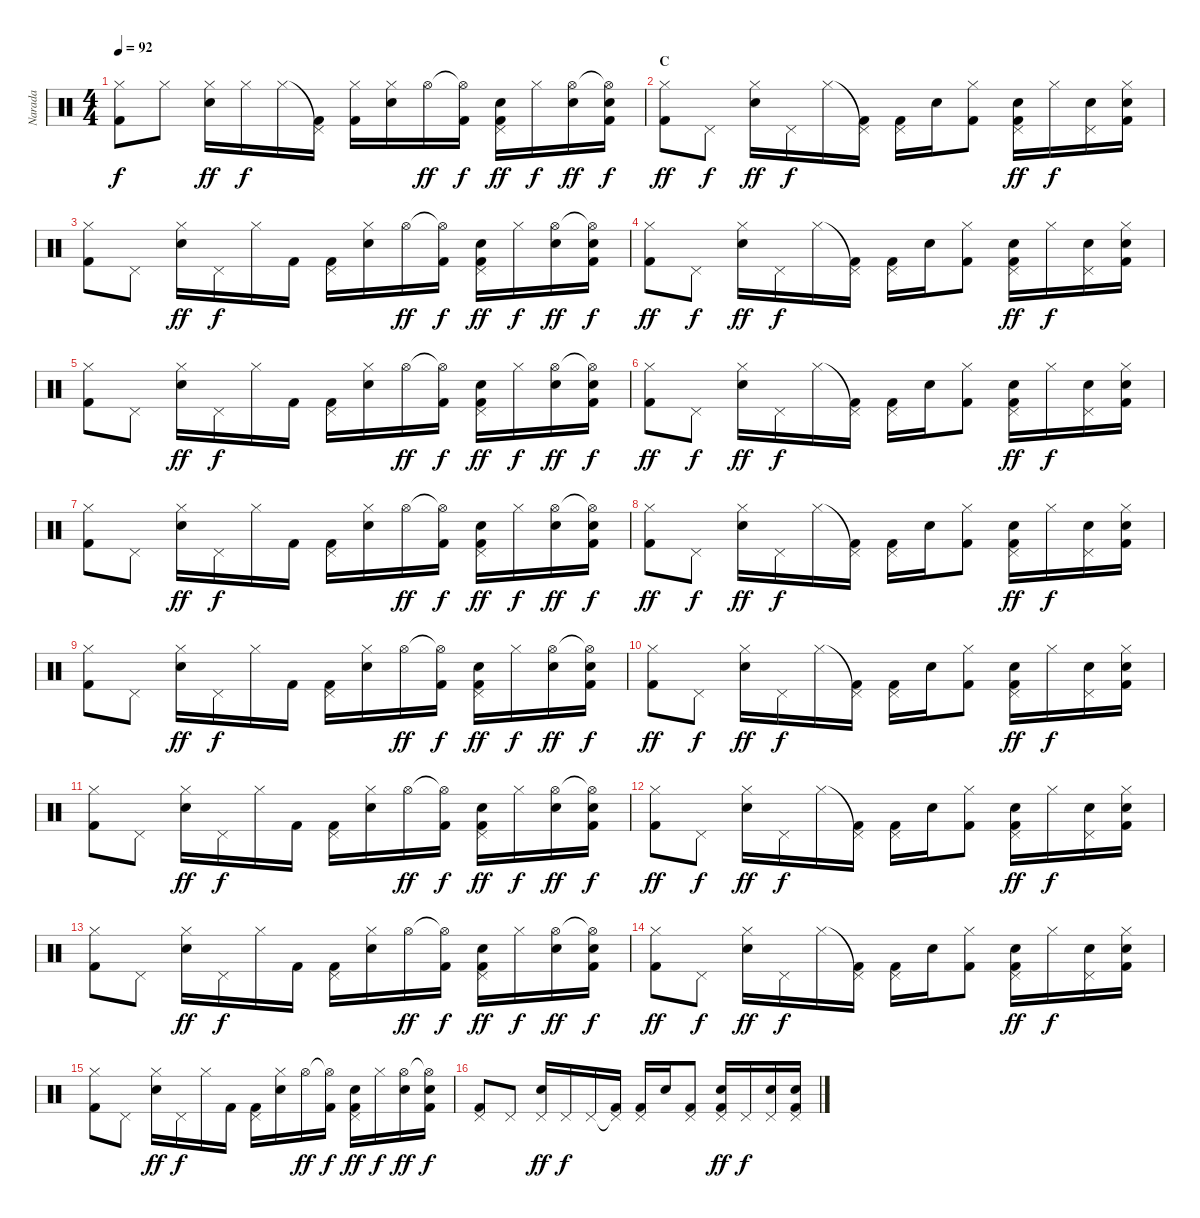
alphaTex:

\track ("Narada" "Narada") {instrument percussion}
\staff {score}
\articulation defaults
\ts (4 4)
\tempo 92
\clef neutral
\ks c
("Hi-Hat (closed)" "Kick (hit) 2").8{dy f} "Hi-Hat (closed)".8 ("Hi-Hat (closed)" "Snare (hit) 2").16{dy ff} "Hi-Hat (closed)".16{dy f} "Hi-Hat (closed)".16 ("Pedal Hi-Hat (hit)"{t} "Kick (hit) 2").16 ("Hi-Hat (closed)" "Kick (hit) 2").16 ("Hi-Hat (closed)" "Snare (hit) 2").16 "Hi-Hat (open)".16{dy ff} ("Hi-Hat (open)"{t} "Kick (hit) 2").16{dy f} ("Pedal Hi-Hat (hit)" "Snare (hit) 2" "Kick (hit) 2").16{dy ff} "Hi-Hat (closed)".16{dy f} ("Hi-Hat (open)" "Snare (hit) 2").16{dy ff} ("Hi-Hat (open)"{t} "Snare (hit) 2" "Kick (hit) 2").16{dy f} |
\section ("" "C")
("Hi-Hat (closed)" "Kick (hit) 2").8{dy ff} "Pedal Hi-Hat (hit)".8{dy f} ("Hi-Hat (closed)" "Snare (hit) 2").16{dy ff} "Pedal Hi-Hat (hit)".16{dy f} "Hi-Hat (closed)".16 ("Pedal Hi-Hat (hit)"{t} "Kick (hit) 2").16 ("Pedal Hi-Hat (hit)" "Kick (hit) 2").16 "Snare (hit) 2".16 ("Hi-Hat (closed)" "Kick (hit) 2").8 ("Pedal Hi-Hat (hit)" "Snare (hit) 2" "Kick (hit) 2").16{dy ff} "Hi-Hat (closed)".16{dy f} ("Pedal Hi-Hat (hit)" "Snare (hit) 2").16 ("Hi-Hat (closed)" "Snare (hit) 2" "Kick (hit) 2").16 |
("Hi-Hat (closed)" "Kick (hit) 2").8 "Pedal Hi-Hat (hit)".8 ("Hi-Hat (closed)" "Snare (hit) 2").16{dy ff} "Pedal Hi-Hat (hit)".16{dy f} "Hi-Hat (closed)".16 "Kick (hit) 2".16 ("Pedal Hi-Hat (hit)" "Kick (hit) 2").16 ("Hi-Hat (closed)" "Snare (hit) 2").16 "Hi-Hat (open)".16{dy ff} ("Hi-Hat (open)"{t} "Kick (hit) 2").16{dy f} ("Pedal Hi-Hat (hit)" "Snare (hit) 2" "Kick (hit) 2").16{dy ff} "Hi-Hat (closed)".16{dy f} ("Hi-Hat (open)" "Snare (hit) 2").16{dy ff} ("Hi-Hat (open)"{t} "Snare (hit) 2" "Kick (hit) 2").16{dy f} |
("Hi-Hat (closed)" "Kick (hit) 2").8{dy ff} "Pedal Hi-Hat (hit)".8{dy f} ("Hi-Hat (closed)" "Snare (hit) 2").16{dy ff} "Pedal Hi-Hat (hit)".16{dy f} "Hi-Hat (closed)".16 ("Pedal Hi-Hat (hit)"{t} "Kick (hit) 2").16 ("Pedal Hi-Hat (hit)" "Kick (hit) 2").16 "Snare (hit) 2".16 ("Hi-Hat (closed)" "Kick (hit) 2").8 ("Pedal Hi-Hat (hit)" "Snare (hit) 2" "Kick (hit) 2").16{dy ff} "Hi-Hat (closed)".16{dy f} ("Pedal Hi-Hat (hit)" "Snare (hit) 2").16 ("Hi-Hat (closed)" "Snare (hit) 2" "Kick (hit) 2").16 |
("Hi-Hat (closed)" "Kick (hit) 2").8 "Pedal Hi-Hat (hit)".8 ("Hi-Hat (closed)" "Snare (hit) 2").16{dy ff} "Pedal Hi-Hat (hit)".16{dy f} "Hi-Hat (closed)".16 "Kick (hit) 2".16 ("Pedal Hi-Hat (hit)" "Kick (hit) 2").16 ("Hi-Hat (closed)" "Snare (hit) 2").16 "Hi-Hat (open)".16{dy ff} ("Hi-Hat (open)"{t} "Kick (hit) 2").16{dy f} ("Pedal Hi-Hat (hit)" "Snare (hit) 2" "Kick (hit) 2").16{dy ff} "Hi-Hat (closed)".16{dy f} ("Hi-Hat (open)" "Snare (hit) 2").16{dy ff} ("Hi-Hat (open)"{t} "Snare (hit) 2" "Kick (hit) 2").16{dy f} |
("Hi-Hat (closed)" "Kick (hit) 2").8{dy ff} "Pedal Hi-Hat (hit)".8{dy f} ("Hi-Hat (closed)" "Snare (hit) 2").16{dy ff} "Pedal Hi-Hat (hit)".16{dy f} "Hi-Hat (closed)".16 ("Pedal Hi-Hat (hit)"{t} "Kick (hit) 2").16 ("Pedal Hi-Hat (hit)" "Kick (hit) 2").16 "Snare (hit) 2".16 ("Hi-Hat (closed)" "Kick (hit) 2").8 ("Pedal Hi-Hat (hit)" "Snare (hit) 2" "Kick (hit) 2").16{dy ff} "Hi-Hat (closed)".16{dy f} ("Pedal Hi-Hat (hit)" "Snare (hit) 2").16 ("Hi-Hat (closed)" "Snare (hit) 2" "Kick (hit) 2").16 |
("Hi-Hat (closed)" "Kick (hit) 2").8 "Pedal Hi-Hat (hit)".8 ("Hi-Hat (closed)" "Snare (hit) 2").16{dy ff} "Pedal Hi-Hat (hit)".16{dy f} "Hi-Hat (closed)".16 "Kick (hit) 2".16 ("Pedal Hi-Hat (hit)" "Kick (hit) 2").16 ("Hi-Hat (closed)" "Snare (hit) 2").16 "Hi-Hat (open)".16{dy ff} ("Hi-Hat (open)"{t} "Kick (hit) 2").16{dy f} ("Pedal Hi-Hat (hit)" "Snare (hit) 2" "Kick (hit) 2").16{dy ff} "Hi-Hat (closed)".16{dy f} ("Hi-Hat (open)" "Snare (hit) 2").16{dy ff} ("Hi-Hat (open)"{t} "Snare (hit) 2" "Kick (hit) 2").16{dy f} |
("Hi-Hat (closed)" "Kick (hit) 2").8{dy ff} "Pedal Hi-Hat (hit)".8{dy f} ("Hi-Hat (closed)" "Snare (hit) 2").16{dy ff} "Pedal Hi-Hat (hit)".16{dy f} "Hi-Hat (closed)".16 ("Pedal Hi-Hat (hit)"{t} "Kick (hit) 2").16 ("Pedal Hi-Hat (hit)" "Kick (hit) 2").16 "Snare (hit) 2".16 ("Hi-Hat (closed)" "Kick (hit) 2").8 ("Pedal Hi-Hat (hit)" "Snare (hit) 2" "Kick (hit) 2").16{dy ff} "Hi-Hat (closed)".16{dy f} ("Pedal Hi-Hat (hit)" "Snare (hit) 2").16 ("Hi-Hat (closed)" "Snare (hit) 2" "Kick (hit) 2").16 |
("Hi-Hat (closed)" "Kick (hit) 2").8 "Pedal Hi-Hat (hit)".8 ("Hi-Hat (closed)" "Snare (hit) 2").16{dy ff} "Pedal Hi-Hat (hit)".16{dy f} "Hi-Hat (closed)".16 "Kick (hit) 2".16 ("Pedal Hi-Hat (hit)" "Kick (hit) 2").16 ("Hi-Hat (closed)" "Snare (hit) 2").16 "Hi-Hat (open)".16{dy ff} ("Hi-Hat (open)"{t} "Kick (hit) 2").16{dy f} ("Pedal Hi-Hat (hit)" "Snare (hit) 2" "Kick (hit) 2").16{dy ff} "Hi-Hat (closed)".16{dy f} ("Hi-Hat (open)" "Snare (hit) 2").16{dy ff} ("Hi-Hat (open)"{t} "Snare (hit) 2" "Kick (hit) 2").16{dy f} |
("Hi-Hat (closed)" "Kick (hit) 2").8{dy ff} "Pedal Hi-Hat (hit)".8{dy f} ("Hi-Hat (closed)" "Snare (hit) 2").16{dy ff} "Pedal Hi-Hat (hit)".16{dy f} "Hi-Hat (closed)".16 ("Pedal Hi-Hat (hit)"{t} "Kick (hit) 2").16 ("Pedal Hi-Hat (hit)" "Kick (hit) 2").16 "Snare (hit) 2".16 ("Hi-Hat (closed)" "Kick (hit) 2").8 ("Pedal Hi-Hat (hit)" "Snare (hit) 2" "Kick (hit) 2").16{dy ff} "Hi-Hat (closed)".16{dy f} ("Pedal Hi-Hat (hit)" "Snare (hit) 2").16 ("Hi-Hat (closed)" "Snare (hit) 2" "Kick (hit) 2").16 |
("Hi-Hat (closed)" "Kick (hit) 2").8 "Pedal Hi-Hat (hit)".8 ("Hi-Hat (closed)" "Snare (hit) 2").16{dy ff} "Pedal Hi-Hat (hit)".16{dy f} "Hi-Hat (closed)".16 "Kick (hit) 2".16 ("Pedal Hi-Hat (hit)" "Kick (hit) 2").16 ("Hi-Hat (closed)" "Snare (hit) 2").16 "Hi-Hat (open)".16{dy ff} ("Hi-Hat (open)"{t} "Kick (hit) 2").16{dy f} ("Pedal Hi-Hat (hit)" "Snare (hit) 2" "Kick (hit) 2").16{dy ff} "Hi-Hat (closed)".16{dy f} ("Hi-Hat (open)" "Snare (hit) 2").16{dy ff} ("Hi-Hat (open)"{t} "Snare (hit) 2" "Kick (hit) 2").16{dy f} |
("Hi-Hat (closed)" "Kick (hit) 2").8{dy ff} "Pedal Hi-Hat (hit)".8{dy f} ("Hi-Hat (closed)" "Snare (hit) 2").16{dy ff} "Pedal Hi-Hat (hit)".16{dy f} "Hi-Hat (closed)".16 ("Pedal Hi-Hat (hit)"{t} "Kick (hit) 2").16 ("Pedal Hi-Hat (hit)" "Kick (hit) 2").16 "Snare (hit) 2".16 ("Hi-Hat (closed)" "Kick (hit) 2").8 ("Pedal Hi-Hat (hit)" "Snare (hit) 2" "Kick (hit) 2").16{dy ff} "Hi-Hat (closed)".16{dy f} ("Pedal Hi-Hat (hit)" "Snare (hit) 2").16 ("Hi-Hat (closed)" "Snare (hit) 2" "Kick (hit) 2").16 |
("Hi-Hat (closed)" "Kick (hit) 2").8 "Pedal Hi-Hat (hit)".8 ("Hi-Hat (closed)" "Snare (hit) 2").16{dy ff} "Pedal Hi-Hat (hit)".16{dy f} "Hi-Hat (closed)".16 "Kick (hit) 2".16 ("Pedal Hi-Hat (hit)" "Kick (hit) 2").16 ("Hi-Hat (closed)" "Snare (hit) 2").16 "Hi-Hat (open)".16{dy ff} ("Hi-Hat (open)"{t} "Kick (hit) 2").16{dy f} ("Pedal Hi-Hat (hit)" "Snare (hit) 2" "Kick (hit) 2").16{dy ff} "Hi-Hat (closed)".16{dy f} ("Hi-Hat (open)" "Snare (hit) 2").16{dy ff} ("Hi-Hat (open)"{t} "Snare (hit) 2" "Kick (hit) 2").16{dy f} |
("Hi-Hat (closed)" "Kick (hit) 2").8{dy ff} "Pedal Hi-Hat (hit)".8{dy f} ("Hi-Hat (closed)" "Snare (hit) 2").16{dy ff} "Pedal Hi-Hat (hit)".16{dy f} "Hi-Hat (closed)".16 ("Pedal Hi-Hat (hit)"{t} "Kick (hit) 2").16 ("Pedal Hi-Hat (hit)" "Kick (hit) 2").16 "Snare (hit) 2".16 ("Hi-Hat (closed)" "Kick (hit) 2").8 ("Pedal Hi-Hat (hit)" "Snare (hit) 2" "Kick (hit) 2").16{dy ff} "Hi-Hat (closed)".16{dy f} ("Pedal Hi-Hat (hit)" "Snare (hit) 2").16 ("Hi-Hat (closed)" "Snare (hit) 2" "Kick (hit) 2").16 |
("Hi-Hat (closed)" "Kick (hit) 2").8 "Pedal Hi-Hat (hit)".8 ("Hi-Hat (closed)" "Snare (hit) 2").16{dy ff} "Pedal Hi-Hat (hit)".16{dy f} "Hi-Hat (closed)".16 "Kick (hit) 2".16 ("Pedal Hi-Hat (hit)" "Kick (hit) 2").16 ("Hi-Hat (closed)" "Snare (hit) 2").16 "Hi-Hat (open)".16{dy ff} ("Hi-Hat (open)"{t} "Kick (hit) 2").16{dy f} ("Pedal Hi-Hat (hit)" "Snare (hit) 2" "Kick (hit) 2").16{dy ff} "Hi-Hat (closed)".16{dy f} ("Hi-Hat (open)" "Snare (hit) 2").16{dy ff} ("Hi-Hat (open)"{t} "Snare (hit) 2" "Kick (hit) 2").16{dy f} |
("Pedal Hi-Hat (hit)" "Kick (hit) 2").8 "Pedal Hi-Hat (hit)".8 ("Pedal Hi-Hat (hit)" "Snare (hit) 2").16{dy ff} "Pedal Hi-Hat (hit)".16{dy f} "Pedal Hi-Hat (hit)".16 ("Pedal Hi-Hat (hit)"{t} "Kick (hit) 2").16 ("Pedal Hi-Hat (hit)" "Kick (hit) 2").16 "Snare (hit) 2".16 ("Pedal Hi-Hat (hit)" "Kick (hit) 2").8 ("Pedal Hi-Hat (hit)" "Snare (hit) 2" "Kick (hit) 2").16{dy ff} "Pedal Hi-Hat (hit)".16{dy f} ("Pedal Hi-Hat (hit)" "Snare (hit) 2").16 ("Pedal Hi-Hat (hit)" "Snare (hit) 2" "Kick (hit) 2").16
